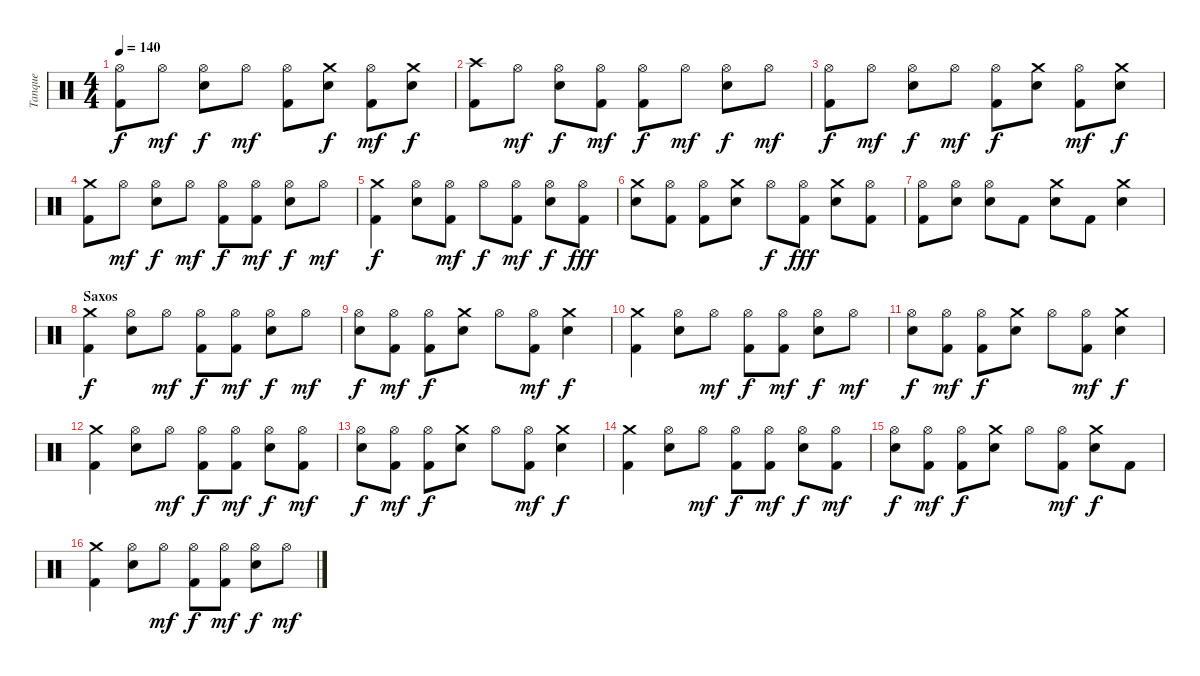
\track ("Tanque" "Tanque") {instrument percussion}
\staff {score}
\articulation defaults
\ts (4 4)
\tempo 140
\clef neutral
\ks c
("Hi-Hat (open)" "Kick (hit) 2").8{dy f} "Hi-Hat (open)".8{dy mf} ("Hi-Hat (open)" "Electric Snare (hit)").8{dy f} "Hi-Hat (open)".8{dy mf} ("Hi-Hat (open)" "Kick (hit) 2").8 ("Crash medium (hit)" "Electric Snare (hit)").8{dy f} ("Hi-Hat (open)" "Kick (hit) 2").8{dy mf} ("Crash medium (hit)" "Electric Snare (hit)").8{dy f} |
("Crash high (hit)" "Kick (hit) 2").8 "Hi-Hat (open)".8{dy mf} ("Hi-Hat (open)" "Electric Snare (hit)").8{dy f} ("Hi-Hat (open)" "Kick (hit) 2").8{dy mf} ("Hi-Hat (open)" "Kick (hit) 2").8{dy f} "Hi-Hat (open)".8{dy mf} ("Hi-Hat (open)" "Electric Snare (hit)").8{dy f} "Hi-Hat (open)".8{dy mf} |
("Hi-Hat (open)" "Kick (hit) 2").8{dy f} "Hi-Hat (open)".8{dy mf} ("Hi-Hat (open)" "Electric Snare (hit)").8{dy f} "Hi-Hat (open)".8{dy mf} ("Hi-Hat (open)" "Kick (hit) 2").8{dy f} ("Crash medium (hit)" "Electric Snare (hit)").8 ("Hi-Hat (open)" "Kick (hit) 2").8{dy mf} ("Crash medium (hit)" "Electric Snare (hit)").8{dy f} |
("Crash medium (hit)" "Kick (hit) 2").8 "Hi-Hat (open)".8{dy mf} ("Hi-Hat (open)" "Electric Snare (hit)").8{dy f} "Hi-Hat (open)".8{dy mf} ("Hi-Hat (open)" "Kick (hit) 2").8{dy f} ("Hi-Hat (open)" "Kick (hit) 2").8{dy mf} ("Hi-Hat (open)" "Electric Snare (hit)").8{dy f} "Hi-Hat (open)".8{dy mf} |
("Crash medium (hit)" "Kick (hit) 2").4{dy f} ("Hi-Hat (open)" "Electric Snare (hit)").8 ("Hi-Hat (open)" "Kick (hit) 2").8{dy mf} "Hi-Hat (open)".8{dy f} ("Hi-Hat (open)" "Kick (hit) 2").8{dy mf} ("Hi-Hat (open)" "Electric Snare (hit)").8{dy f} ("Hi-Hat (open)" "Kick (hit) 2").8{dy fff} |
("Crash medium (hit)" "Electric Snare (hit)").8 ("Hi-Hat (open)" "Kick (hit) 2").8 ("Hi-Hat (open)" "Kick (hit) 2").8 ("Crash medium (hit)" "Electric Snare (hit)").8 "Hi-Hat (open)".8{dy f} ("Hi-Hat (open)" "Kick (hit) 2").8{dy fff} ("Crash medium (hit)" "Electric Snare (hit)").8 ("Hi-Hat (open)" "Kick (hit) 2").8 |
("Hi-Hat (open)" "Kick (hit) 2").8 ("Hi-Hat (open)" "Electric Snare (hit)").8 ("Hi-Hat (open)" "Electric Snare (hit)").8 "Kick (hit) 2".8 ("Crash medium (hit)" "Electric Snare (hit)").8 "Kick (hit) 2".8 ("Crash medium (hit)" "Electric Snare (hit)").4 |
\section ("" "Saxos")
("Crash medium (hit)" "Kick (hit) 2").4{dy f} ("Hi-Hat (open)" "Electric Snare (hit)").8 "Hi-Hat (open)".8{dy mf} ("Hi-Hat (open)" "Kick (hit) 2").8{dy f} ("Hi-Hat (open)" "Kick (hit) 2").8{dy mf} ("Hi-Hat (open)" "Electric Snare (hit)").8{dy f} "Hi-Hat (open)".8{dy mf} |
("Hi-Hat (open)" "Electric Snare (hit)").8{dy f} ("Hi-Hat (open)" "Kick (hit) 2").8{dy mf} ("Hi-Hat (open)" "Kick (hit) 2").8{dy f} ("Crash medium (hit)" "Electric Snare (hit)").8 "Hi-Hat (open)".8 ("Hi-Hat (open)" "Kick (hit) 2").8{dy mf} ("Crash medium (hit)" "Electric Snare (hit)").4{dy f} |
("Crash medium (hit)" "Kick (hit) 2").4 ("Hi-Hat (open)" "Electric Snare (hit)").8 "Hi-Hat (open)".8{dy mf} ("Hi-Hat (open)" "Kick (hit) 2").8{dy f} ("Hi-Hat (open)" "Kick (hit) 2").8{dy mf} ("Hi-Hat (open)" "Electric Snare (hit)").8{dy f} "Hi-Hat (open)".8{dy mf} |
("Hi-Hat (open)" "Electric Snare (hit)").8{dy f} ("Hi-Hat (open)" "Kick (hit) 2").8{dy mf} ("Hi-Hat (open)" "Kick (hit) 2").8{dy f} ("Crash medium (hit)" "Electric Snare (hit)").8 "Hi-Hat (open)".8 ("Hi-Hat (open)" "Kick (hit) 2").8{dy mf} ("Crash medium (hit)" "Electric Snare (hit)").4{dy f} |
("Crash medium (hit)" "Kick (hit) 2").4 ("Hi-Hat (open)" "Electric Snare (hit)").8 "Hi-Hat (open)".8{dy mf} ("Hi-Hat (open)" "Kick (hit) 2").8{dy f} ("Hi-Hat (open)" "Kick (hit) 2").8{dy mf} ("Hi-Hat (open)" "Electric Snare (hit)").8{dy f} ("Hi-Hat (open)" "Kick (hit) 2").8{dy mf} |
("Hi-Hat (open)" "Electric Snare (hit)").8{dy f} ("Hi-Hat (open)" "Kick (hit) 2").8{dy mf} ("Hi-Hat (open)" "Kick (hit) 2").8{dy f} ("Crash medium (hit)" "Electric Snare (hit)").8 "Hi-Hat (open)".8 ("Hi-Hat (open)" "Kick (hit) 2").8{dy mf} ("Crash medium (hit)" "Electric Snare (hit)").4{dy f} |
("Crash medium (hit)" "Kick (hit) 2").4 ("Hi-Hat (open)" "Electric Snare (hit)").8 "Hi-Hat (open)".8{dy mf} ("Hi-Hat (open)" "Kick (hit) 2").8{dy f} ("Hi-Hat (open)" "Kick (hit) 2").8{dy mf} ("Hi-Hat (open)" "Electric Snare (hit)").8{dy f} ("Hi-Hat (open)" "Kick (hit) 2").8{dy mf} |
("Hi-Hat (open)" "Electric Snare (hit)").8{dy f} ("Hi-Hat (open)" "Kick (hit) 2").8{dy mf} ("Hi-Hat (open)" "Kick (hit) 2").8{dy f} ("Crash medium (hit)" "Electric Snare (hit)").8 "Hi-Hat (open)".8 ("Hi-Hat (open)" "Kick (hit) 2").8{dy mf} ("Crash medium (hit)" "Electric Snare (hit)").8{dy f} "Kick (hit) 2".8 |
("Crash medium (hit)" "Kick (hit) 2").4 ("Hi-Hat (open)" "Electric Snare (hit)").8 "Hi-Hat (open)".8{dy mf} ("Hi-Hat (open)" "Kick (hit) 2").8{dy f} ("Hi-Hat (open)" "Kick (hit) 2").8{dy mf} ("Hi-Hat (open)" "Electric Snare (hit)").8{dy f} "Hi-Hat (open)".8{dy mf}
